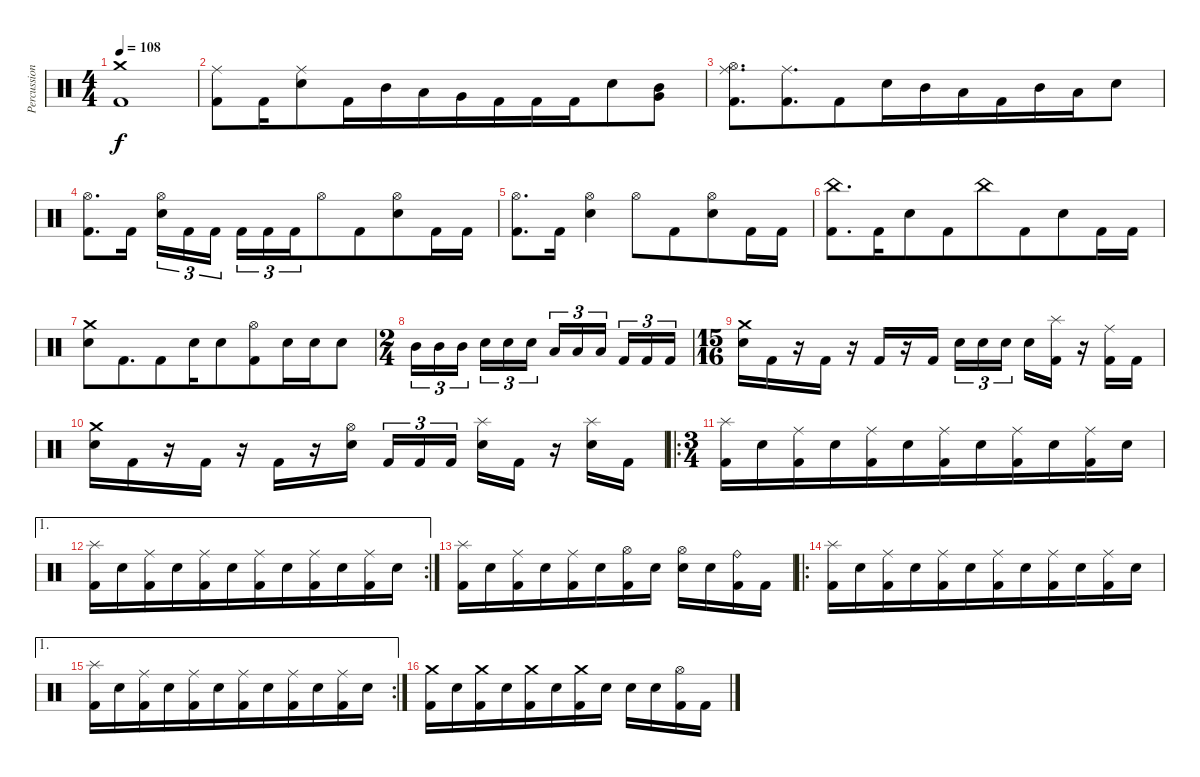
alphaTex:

\track ("Percussion" "Percussion") {instrument percussion}
\staff {score}
\articulation defaults
\ts (4 4)
\tempo 108
\clef neutral
\ks c
("Crash medium (hit)" "Kick (hit) 2").1{dy f} |
("Ride (middle)" "Kick (hit) 2").8 "Kick (hit) 2".16 ("Ride (middle)" "Snare (hit) 2").8{beam merge} "Kick (hit) 2".16 "Mid Tom (hit)".16 "Low Tom (hit)".16{beam merge} "Very Low Tom (hit)".16 "Kick (hit) 2".16 "Kick (hit) 2".16 "Kick (hit) 2".16{beam merge} "Snare (hit) 2".8 ("Mid Tom (hit)" "Very Low Tom (hit)").8 |
("Ride (middle)" "Hi-Hat (open)" "Kick (hit) 2").8{d} ("Ride (middle)" "Kick (hit) 2").8{d beam merge} "Kick (hit) 2".8{beam merge} "Snare (hit) 2".16 "Mid Tom (hit)".16 "Low Tom (hit)".16 "Kick (hit) 2".16{beam merge} "Mid Tom (hit)".16 "Low Tom (hit)".16 "Snare (hit) 2".8 |
("Hi-Hat (open)" "Kick (hit) 2").8{d} "Kick (hit) 2".16{beam splitsecondary} ("Hi-Hat (open)" "Snare (hit) 2").16{tu (3 2)} "Kick (hit) 2".16{tu (3 2)} "Kick (hit) 2".16{tu (3 2) beam splitsecondary} "Kick (hit) 2".16{tu (3 2)} "Kick (hit) 2".16{tu (3 2)} "Kick (hit) 2".16{tu (3 2) beam merge} "Hi-Hat (open)".8 "Kick (hit) 2".8{beam merge} ("Hi-Hat (open)" "Snare (hit) 2").8 "Kick (hit) 2".16 "Kick (hit) 2".16 |
("Hi-Hat (open)" "Kick (hit) 2").8{d} "Kick (hit) 2".16 ("Hi-Hat (open)" "Snare (hit) 2").4 "Hi-Hat (open)".8 "Kick (hit) 2".8{beam merge} ("Hi-Hat (open)" "Snare (hit) 2").8 "Kick (hit) 2".16 "Kick (hit) 2".16 |
("China (hit)" "Kick (hit) 2").8{d} "Kick (hit) 2".16{beam merge} "Snare (hit) 2".8 "Kick (hit) 2".8{beam merge} "China (hit)".8 "Kick (hit) 2".8{beam merge} "Snare (hit) 2".8 "Kick (hit) 2".16 "Kick (hit) 2".16 |
("Crash medium (hit)" "Snare (hit) 2").8 "Kick (hit) 2".8{d beam merge} "Kick (hit) 2".8 "Snare (hit) 2".16{beam merge} "Snare (hit) 2".8 ("Hi-Hat (open)" "Kick (hit) 2").8{beam merge} "Snare (hit) 2".16 "Snare (hit) 2".16 "Snare (hit) 2".8 |
\ts (2 4)
"Mid Tom (hit)".16{tu (3 2)} "Mid Tom (hit)".16{tu (3 2)} "Mid Tom (hit)".16{tu (3 2) beam splitsecondary} "Snare (hit) 2".16{tu (3 2)} "Snare (hit) 2".16{tu (3 2)} "Snare (hit) 2".16{tu (3 2) beam splitsecondary} "Low Tom (hit)".16{tu (3 2)} "Low Tom (hit)".16{tu (3 2)} "Low Tom (hit)".16{tu (3 2) beam splitsecondary} "Kick (hit) 2".16{tu (3 2)} "Kick (hit) 2".16{tu (3 2)} "Kick (hit) 2".16{tu (3 2)} |
\ts (15 16)
("Crash medium (hit)" "Snare (hit) 2").16 "Kick (hit) 2".16 r.16 "Kick (hit) 2".16 r.16 "Kick (hit) 2".16 r.16 "Kick (hit) 2".16{beam splitsecondary} "Snare (hit) 2".16{tu (3 2)} "Snare (hit) 2".16{tu (3 2)} "Snare (hit) 2".16{tu (3 2) beam splitsecondary} "Snare (hit) 2".16 ("Splash (hit)" "Kick (hit) 2").16 r.16 ("Ride (middle)" "Kick (hit) 2").16 "Kick (hit) 2".16 |
("Crash medium (hit)" "Snare (hit) 2").16 "Kick (hit) 2".16 r.16 "Kick (hit) 2".16 r.16 "Kick (hit) 2".16 r.16 ("Hi-Hat (open)" "Snare (hit) 2").16{beam splitsecondary} "Kick (hit) 2".16{tu (3 2)} "Kick (hit) 2".16{tu (3 2)} "Kick (hit) 2".16{tu (3 2) beam splitsecondary} ("Splash (hit)" "Snare (hit) 2").16 "Kick (hit) 2".16 r.16 ("Splash (hit)" "Snare (hit) 2").16 "Kick (hit) 2".16 |
\ro
\ts (3 4)
("Splash (hit)" "Kick (hit) 2").16 "Snare (hit) 2".16 ("Ride (middle)" "Kick (hit) 2").16 "Snare (hit) 2".16{beam merge} ("Ride (middle)" "Kick (hit) 2").16 "Snare (hit) 2".16 ("Ride (middle)" "Kick (hit) 2").16 "Snare (hit) 2".16{beam merge} ("Ride (middle)" "Kick (hit) 2").16 "Snare (hit) 2".16 ("Ride (middle)" "Kick (hit) 2").16 "Snare (hit) 2".16 |
\ae 1
\rc 2
("Splash (hit)" "Kick (hit) 2").16 "Snare (hit) 2".16 ("Ride (middle)" "Kick (hit) 2").16 "Snare (hit) 2".16{beam merge} ("Ride (middle)" "Kick (hit) 2").16 "Snare (hit) 2".16 ("Ride (middle)" "Kick (hit) 2").16 "Snare (hit) 2".16{beam merge} ("Ride (middle)" "Kick (hit) 2").16 "Snare (hit) 2".16 ("Ride (middle)" "Kick (hit) 2").16 "Snare (hit) 2".16 |
("Splash (hit)" "Kick (hit) 2").16 "Snare (hit) 2".16 ("Ride (middle)" "Kick (hit) 2").16 "Snare (hit) 2".16{beam merge} ("Ride (middle)" "Kick (hit) 2").16 "Snare (hit) 2".16 ("Hi-Hat (open)" "Kick (hit) 2").16 "Snare (hit) 2".16 ("Hi-Hat (open)" "Snare (hit) 2").16 "Snare (hit) 2".16 ("Ride (bell)" "Kick (hit) 2").16 "Kick (hit) 2".16 |
\ro
("Splash (hit)" "Kick (hit) 2").16 "Snare (hit) 2".16 ("Ride (middle)" "Kick (hit) 2").16 "Snare (hit) 2".16{beam merge} ("Ride (middle)" "Kick (hit) 2").16 "Snare (hit) 2".16 ("Ride (middle)" "Kick (hit) 2").16 "Snare (hit) 2".16{beam merge} ("Ride (middle)" "Kick (hit) 2").16 "Snare (hit) 2".16 ("Ride (middle)" "Kick (hit) 2").16 "Snare (hit) 2".16 |
\ae 1
\rc 2
("Splash (hit)" "Kick (hit) 2").16 "Snare (hit) 2".16 ("Ride (middle)" "Kick (hit) 2").16 "Snare (hit) 2".16{beam merge} ("Ride (middle)" "Kick (hit) 2").16 "Snare (hit) 2".16 ("Ride (middle)" "Kick (hit) 2").16 "Snare (hit) 2".16{beam merge} ("Ride (middle)" "Kick (hit) 2").16 "Snare (hit) 2".16 ("Ride (middle)" "Kick (hit) 2").16 "Snare (hit) 2".16 |
("Crash medium (hit)" "Kick (hit) 2").16 "Snare (hit) 2".16 ("Crash medium (hit)" "Kick (hit) 2").16 "Snare (hit) 2".16{beam merge} ("Crash medium (hit)" "Kick (hit) 2").16 "Snare (hit) 2".16 ("Crash medium (hit)" "Kick (hit) 2").16 "Snare (hit) 2".16 "Snare (hit) 2".16 "Snare (hit) 2".16 ("Hi-Hat (open)" "Kick (hit) 2").16 "Kick (hit) 2".16
